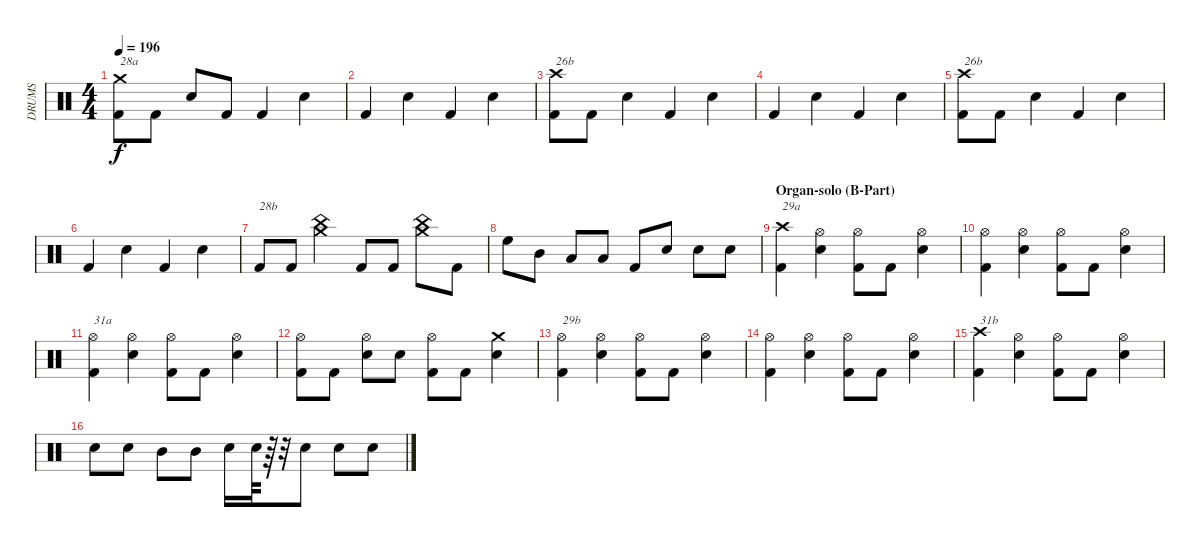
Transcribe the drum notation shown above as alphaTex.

\track ("DRUMS" "DRUMS") {instrument percussion}
\staff {score}
\articulation defaults
\ts (4 4)
\tempo 196
\clef neutral
\ks c
("Crash medium (hit)" "Kick (hit) 2").8{txt "28a" dy f} "Kick (hit) 2".8 "Snare (hit) 2".8 "Kick (hit) 2".8 "Kick (hit) 2".4 "Snare (hit) 2".4 |
"Kick (hit) 2".4 "Snare (hit) 2".4 "Kick (hit) 2".4 "Snare (hit) 2".4 |
("Crash high (hit)" "Kick (hit) 2").8{txt "26b"} "Kick (hit) 2".8 "Snare (hit) 2".4 "Kick (hit) 2".4 "Snare (hit) 2".4 |
"Kick (hit) 2".4 "Snare (hit) 2".4 "Kick (hit) 2".4 "Snare (hit) 2".4 |
("Crash high (hit)" "Kick (hit) 2").8{txt "26b"} "Kick (hit) 2".8 "Snare (hit) 2".4 "Kick (hit) 2".4 "Snare (hit) 2".4 |
"Kick (hit) 2".4 "Snare (hit) 2".4 "Kick (hit) 2".4 "Snare (hit) 2".4 |
"Kick (hit) 2".8{txt "28b"} "Kick (hit) 2".8 ("Crash medium (hit)" "China (hit)").4 "Kick (hit) 2".8 "Kick (hit) 2".8 ("Crash medium (hit)" "China (hit)").8 "Kick (hit) 2".8 |
"High Floor Tom (hit)".8 "Mid Tom (hit)".8 "Low Tom (hit)".8 "Low Floor Tom (hit)".8 "Kick (hit) 2".8 "Snare (hit) 2".8 "Snare (hit) 2".8 "Snare (hit) 2".8 |
\section ("" "Organ-solo (B-Part)")
("Crash high (hit)" "Kick (hit) 2").4{txt "29a"} ("Hi-Hat (open)" "Snare (hit) 2").4 ("Hi-Hat (open)" "Kick (hit) 2").8 "Kick (hit) 2".8 ("Hi-Hat (open)" "Snare (hit) 2").4 |
("Hi-Hat (open)" "Kick (hit) 2").4 ("Hi-Hat (open)" "Snare (hit) 2").4 ("Hi-Hat (open)" "Kick (hit) 2").8 "Kick (hit) 2".8 ("Hi-Hat (open)" "Snare (hit) 2").4 |
("Hi-Hat (open)" "Kick (hit) 2").4{txt "31a"} ("Hi-Hat (open)" "Snare (hit) 2").4 ("Hi-Hat (open)" "Kick (hit) 2").8 "Kick (hit) 2".8 ("Hi-Hat (open)" "Snare (hit) 2").4 |
("Hi-Hat (open)" "Kick (hit) 2").8 "Kick (hit) 2".8 ("Hi-Hat (open)" "Snare (hit) 2").8 "Snare (hit) 2".8 ("Hi-Hat (open)" "Kick (hit) 2").8 "Kick (hit) 2".8 ("Crash medium (hit)" "Snare (hit) 2").4 |
("Hi-Hat (open)" "Kick (hit) 2").4{txt "29b"} ("Hi-Hat (open)" "Snare (hit) 2").4 ("Hi-Hat (open)" "Kick (hit) 2").8 "Kick (hit) 2".8 ("Hi-Hat (open)" "Snare (hit) 2").4 |
("Hi-Hat (open)" "Kick (hit) 2").4 ("Hi-Hat (open)" "Snare (hit) 2").4 ("Hi-Hat (open)" "Kick (hit) 2").8 "Kick (hit) 2".8 ("Hi-Hat (open)" "Snare (hit) 2").4 |
("Crash high (hit)" "Kick (hit) 2").4{txt "31b"} ("Hi-Hat (open)" "Snare (hit) 2").4 ("Hi-Hat (open)" "Kick (hit) 2").8 "Kick (hit) 2".8 ("Hi-Hat (open)" "Snare (hit) 2").4 |
"Snare (hit) 2".8 "Snare (hit) 2".8 "Mid Tom (hit)".8 "Mid Tom (hit)".8 "Snare (hit) 2".16 "Snare (hit) 2".64 r.64 r.32 "Snare (hit) 2".8 "Snare (hit) 2".8 "Snare (hit) 2".8
